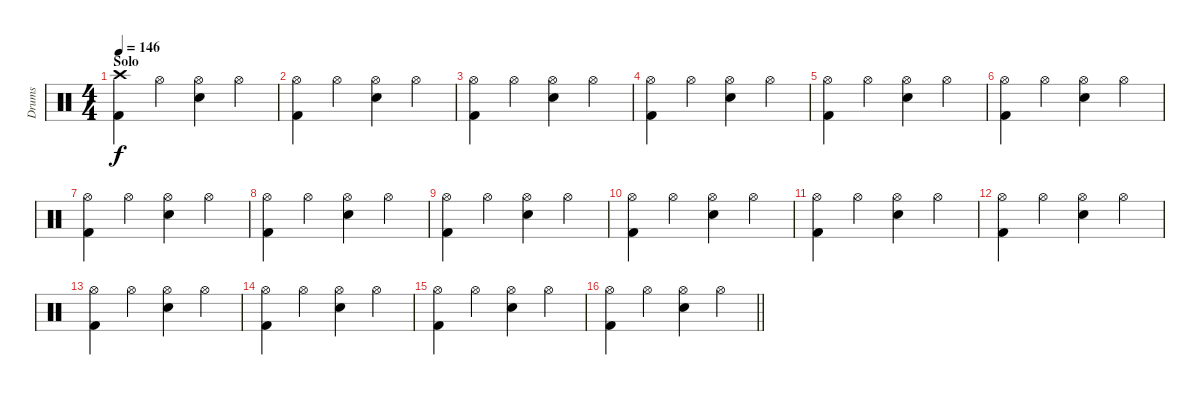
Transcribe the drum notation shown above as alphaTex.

\track ("Drums" "Drums") {instrument percussion}
\staff {score}
\articulation defaults
\ts (4 4)
\section ("" "Solo")
\tempo 146
\clef neutral
\ks c
("Crash high (hit)" "Kick (hit) 2").4{dy f} "Hi-Hat (open)".4 ("Hi-Hat (open)" "Electric Snare (hit)").4 "Hi-Hat (open)".4 |
("Hi-Hat (open)" "Kick (hit) 2").4 "Hi-Hat (open)".4 ("Hi-Hat (open)" "Electric Snare (hit)").4 "Hi-Hat (open)".4 |
("Hi-Hat (open)" "Kick (hit) 2").4 "Hi-Hat (open)".4 ("Hi-Hat (open)" "Electric Snare (hit)").4 "Hi-Hat (open)".4 |
("Hi-Hat (open)" "Kick (hit) 2").4 "Hi-Hat (open)".4 ("Hi-Hat (open)" "Electric Snare (hit)").4 "Hi-Hat (open)".4 |
("Hi-Hat (open)" "Kick (hit) 2").4 "Hi-Hat (open)".4 ("Hi-Hat (open)" "Electric Snare (hit)").4 "Hi-Hat (open)".4 |
("Hi-Hat (open)" "Kick (hit) 2").4 "Hi-Hat (open)".4 ("Hi-Hat (open)" "Electric Snare (hit)").4 "Hi-Hat (open)".4 |
("Hi-Hat (open)" "Kick (hit) 2").4 "Hi-Hat (open)".4 ("Hi-Hat (open)" "Electric Snare (hit)").4 "Hi-Hat (open)".4 |
("Hi-Hat (open)" "Kick (hit) 2").4 "Hi-Hat (open)".4 ("Hi-Hat (open)" "Electric Snare (hit)").4 "Hi-Hat (open)".4 |
("Hi-Hat (open)" "Kick (hit) 2").4 "Hi-Hat (open)".4 ("Hi-Hat (open)" "Electric Snare (hit)").4 "Hi-Hat (open)".4 |
("Hi-Hat (open)" "Kick (hit) 2").4 "Hi-Hat (open)".4 ("Hi-Hat (open)" "Electric Snare (hit)").4 "Hi-Hat (open)".4 |
("Hi-Hat (open)" "Kick (hit) 2").4 "Hi-Hat (open)".4 ("Hi-Hat (open)" "Electric Snare (hit)").4 "Hi-Hat (open)".4 |
("Hi-Hat (open)" "Kick (hit) 2").4 "Hi-Hat (open)".4 ("Hi-Hat (open)" "Electric Snare (hit)").4 "Hi-Hat (open)".4 |
("Hi-Hat (open)" "Kick (hit) 2").4 "Hi-Hat (open)".4 ("Hi-Hat (open)" "Electric Snare (hit)").4 "Hi-Hat (open)".4 |
("Hi-Hat (open)" "Kick (hit) 2").4 "Hi-Hat (open)".4 ("Hi-Hat (open)" "Electric Snare (hit)").4 "Hi-Hat (open)".4 |
("Hi-Hat (open)" "Kick (hit) 2").4 "Hi-Hat (open)".4 ("Hi-Hat (open)" "Electric Snare (hit)").4 "Hi-Hat (open)".4 |
\barLineRight lightlight
("Hi-Hat (open)" "Kick (hit) 2").4 "Hi-Hat (open)".4 ("Hi-Hat (open)" "Electric Snare (hit)").4 "Hi-Hat (open)".4
